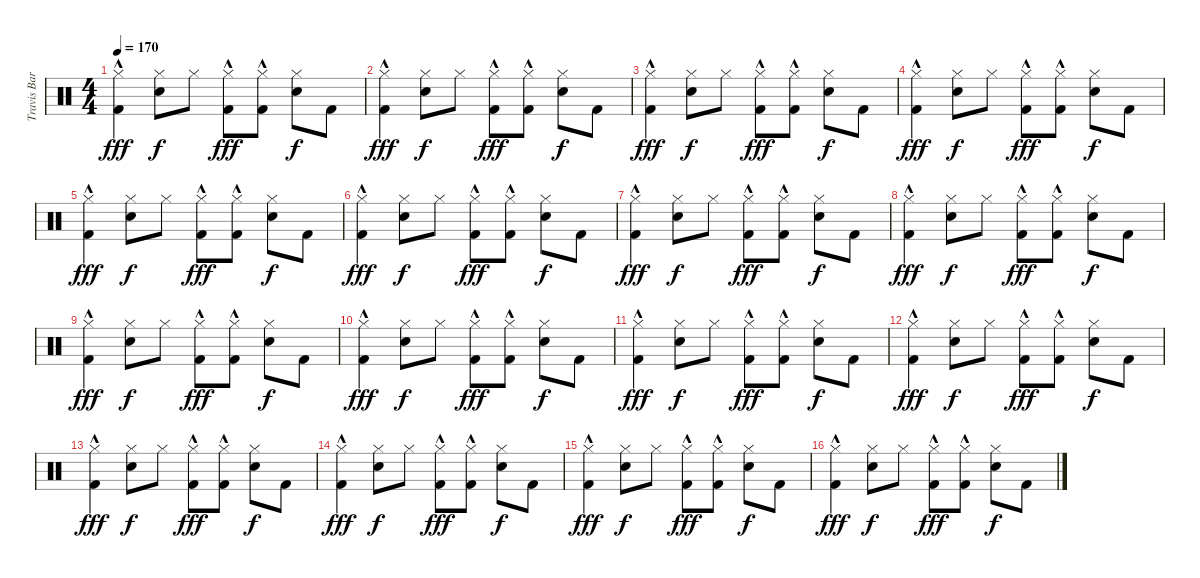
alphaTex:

\track ("Travis Barker" "Travis Bar") {instrument percussion}
\staff {score}
\articulation defaults
\ts (4 4)
\tempo 170
\clef neutral
\ks c
("Hi-Hat (closed)" "Kick (hit) 2"{hac}).4{dy fff} ("Hi-Hat (closed)" "Snare (hit) 2").8{dy f} "Hi-Hat (closed)".8 ("Hi-Hat (closed)" "Kick (hit) 2"{hac}).8{dy fff} ("Hi-Hat (closed)" "Kick (hit) 2"{hac}).8 ("Hi-Hat (closed)" "Snare (hit) 2").8{dy f} "Kick (hit) 2".8 |
("Hi-Hat (closed)" "Kick (hit) 2"{hac}).4{dy fff} ("Hi-Hat (closed)" "Snare (hit) 2").8{dy f} "Hi-Hat (closed)".8 ("Hi-Hat (closed)" "Kick (hit) 2"{hac}).8{dy fff} ("Hi-Hat (closed)" "Kick (hit) 2"{hac}).8 ("Hi-Hat (closed)" "Snare (hit) 2").8{dy f} "Kick (hit) 2".8 |
("Hi-Hat (closed)" "Kick (hit) 2"{hac}).4{dy fff} ("Hi-Hat (closed)" "Snare (hit) 2").8{dy f} "Hi-Hat (closed)".8 ("Hi-Hat (closed)" "Kick (hit) 2"{hac}).8{dy fff} ("Hi-Hat (closed)" "Kick (hit) 2"{hac}).8 ("Hi-Hat (closed)" "Snare (hit) 2").8{dy f} "Kick (hit) 2".8 |
("Hi-Hat (closed)" "Kick (hit) 2"{hac}).4{dy fff} ("Hi-Hat (closed)" "Snare (hit) 2").8{dy f} "Hi-Hat (closed)".8 ("Hi-Hat (closed)" "Kick (hit) 2"{hac}).8{dy fff} ("Hi-Hat (closed)" "Kick (hit) 2"{hac}).8 ("Hi-Hat (closed)" "Snare (hit) 2").8{dy f} "Kick (hit) 2".8 |
("Hi-Hat (closed)" "Kick (hit) 2"{hac}).4{dy fff} ("Hi-Hat (closed)" "Snare (hit) 2").8{dy f} "Hi-Hat (closed)".8 ("Hi-Hat (closed)" "Kick (hit) 2"{hac}).8{dy fff} ("Hi-Hat (closed)" "Kick (hit) 2"{hac}).8 ("Hi-Hat (closed)" "Snare (hit) 2").8{dy f} "Kick (hit) 2".8 |
("Hi-Hat (closed)" "Kick (hit) 2"{hac}).4{dy fff} ("Hi-Hat (closed)" "Snare (hit) 2").8{dy f} "Hi-Hat (closed)".8 ("Hi-Hat (closed)" "Kick (hit) 2"{hac}).8{dy fff} ("Hi-Hat (closed)" "Kick (hit) 2"{hac}).8 ("Hi-Hat (closed)" "Snare (hit) 2").8{dy f} "Kick (hit) 2".8 |
("Hi-Hat (closed)" "Kick (hit) 2"{hac}).4{dy fff} ("Hi-Hat (closed)" "Snare (hit) 2").8{dy f} "Hi-Hat (closed)".8 ("Hi-Hat (closed)" "Kick (hit) 2"{hac}).8{dy fff} ("Hi-Hat (closed)" "Kick (hit) 2"{hac}).8 ("Hi-Hat (closed)" "Snare (hit) 2").8{dy f} "Kick (hit) 2".8 |
("Hi-Hat (closed)" "Kick (hit) 2"{hac}).4{dy fff} ("Hi-Hat (closed)" "Snare (hit) 2").8{dy f} "Hi-Hat (closed)".8 ("Hi-Hat (closed)" "Kick (hit) 2"{hac}).8{dy fff} ("Hi-Hat (closed)" "Kick (hit) 2"{hac}).8 ("Hi-Hat (closed)" "Snare (hit) 2").8{dy f} "Kick (hit) 2".8 |
("Hi-Hat (closed)" "Kick (hit) 2"{hac}).4{dy fff} ("Hi-Hat (closed)" "Snare (hit) 2").8{dy f} "Hi-Hat (closed)".8 ("Hi-Hat (closed)" "Kick (hit) 2"{hac}).8{dy fff} ("Hi-Hat (closed)" "Kick (hit) 2"{hac}).8 ("Hi-Hat (closed)" "Snare (hit) 2").8{dy f} "Kick (hit) 2".8 |
("Hi-Hat (closed)" "Kick (hit) 2"{hac}).4{dy fff} ("Hi-Hat (closed)" "Snare (hit) 2").8{dy f} "Hi-Hat (closed)".8 ("Hi-Hat (closed)" "Kick (hit) 2"{hac}).8{dy fff} ("Hi-Hat (closed)" "Kick (hit) 2"{hac}).8 ("Hi-Hat (closed)" "Snare (hit) 2").8{dy f} "Kick (hit) 2".8 |
("Hi-Hat (closed)" "Kick (hit) 2"{hac}).4{dy fff} ("Hi-Hat (closed)" "Snare (hit) 2").8{dy f} "Hi-Hat (closed)".8 ("Hi-Hat (closed)" "Kick (hit) 2"{hac}).8{dy fff} ("Hi-Hat (closed)" "Kick (hit) 2"{hac}).8 ("Hi-Hat (closed)" "Snare (hit) 2").8{dy f} "Kick (hit) 2".8 |
("Hi-Hat (closed)" "Kick (hit) 2"{hac}).4{dy fff} ("Hi-Hat (closed)" "Snare (hit) 2").8{dy f} "Hi-Hat (closed)".8 ("Hi-Hat (closed)" "Kick (hit) 2"{hac}).8{dy fff} ("Hi-Hat (closed)" "Kick (hit) 2"{hac}).8 ("Hi-Hat (closed)" "Snare (hit) 2").8{dy f} "Kick (hit) 2".8 |
("Hi-Hat (closed)" "Kick (hit) 2"{hac}).4{dy fff} ("Hi-Hat (closed)" "Snare (hit) 2").8{dy f} "Hi-Hat (closed)".8 ("Hi-Hat (closed)" "Kick (hit) 2"{hac}).8{dy fff} ("Hi-Hat (closed)" "Kick (hit) 2"{hac}).8 ("Hi-Hat (closed)" "Snare (hit) 2").8{dy f} "Kick (hit) 2".8 |
("Hi-Hat (closed)" "Kick (hit) 2"{hac}).4{dy fff} ("Hi-Hat (closed)" "Snare (hit) 2").8{dy f} "Hi-Hat (closed)".8 ("Hi-Hat (closed)" "Kick (hit) 2"{hac}).8{dy fff} ("Hi-Hat (closed)" "Kick (hit) 2"{hac}).8 ("Hi-Hat (closed)" "Snare (hit) 2").8{dy f} "Kick (hit) 2".8 |
("Hi-Hat (closed)" "Kick (hit) 2"{hac}).4{dy fff} ("Hi-Hat (closed)" "Snare (hit) 2").8{dy f} "Hi-Hat (closed)".8 ("Hi-Hat (closed)" "Kick (hit) 2"{hac}).8{dy fff} ("Hi-Hat (closed)" "Kick (hit) 2"{hac}).8 ("Hi-Hat (closed)" "Snare (hit) 2").8{dy f} "Kick (hit) 2".8 |
("Hi-Hat (closed)" "Kick (hit) 2"{hac}).4{dy fff} ("Hi-Hat (closed)" "Snare (hit) 2").8{dy f} "Hi-Hat (closed)".8 ("Hi-Hat (closed)" "Kick (hit) 2"{hac}).8{dy fff} ("Hi-Hat (closed)" "Kick (hit) 2"{hac}).8 ("Hi-Hat (closed)" "Snare (hit) 2").8{dy f} "Kick (hit) 2".8
